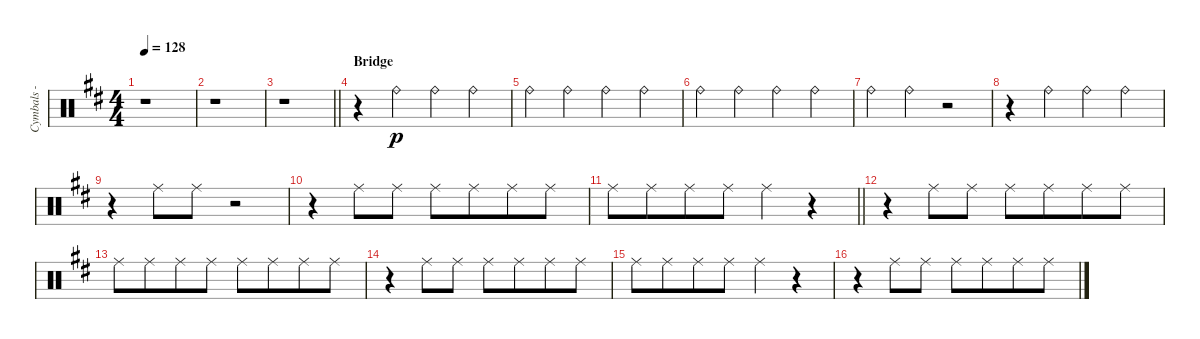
\track ("Cymbals - ride" "Cymbals - ") {instrument percussion}
\staff {score}
\articulation defaults
\ts (4 4)
\tempo 128
\clef neutral
\ks bminor
r.1{dy p} |
r.1 |
\barLineRight lightlight
r.1 |
\section ("" "Bridge")
r.4 "Ride (bell)".4 "Ride (bell)".4 "Ride (bell)".4 |
"Ride (bell)".4 "Ride (bell)".4 "Ride (bell)".4 "Ride (bell)".4 |
"Ride (bell)".4 "Ride (bell)".4 "Ride (bell)".4 "Ride (bell)".4 |
"Ride (bell)".4 "Ride (bell)".4 r.2 |
r.4 "Ride (bell)".4 "Ride (bell)".4 "Ride (bell)".4 |
r.4 "Ride (middle)".8 "Ride (middle)".8 r.2 |
r.4 "Ride (middle)".8 "Ride (middle)".8 "Ride (middle)".8 "Ride (middle)".8{beam merge} "Ride (middle)".8 "Ride (middle)".8 |
\barLineRight lightlight "Ride (middle)".8 "Ride (middle)".8{beam merge} "Ride (middle)".8 "Ride (middle)".8 "Ride (middle)".4
r.4 |
r.4 "Ride (middle)".8 "Ride (middle)".8 "Ride (middle)".8 "Ride (middle)".8{beam merge} "Ride (middle)".8 "Ride (middle)".8 |
"Ride (middle)".8 "Ride (middle)".8{beam merge} "Ride (middle)".8 "Ride (middle)".8 "Ride (middle)".8 "Ride (middle)".8{beam merge} "Ride (middle)".8 "Ride (middle)".8 |
r.4 "Ride (middle)".8 "Ride (middle)".8 "Ride (middle)".8 "Ride (middle)".8{beam merge} "Ride (middle)".8 "Ride (middle)".8 |
"Ride (middle)".8 "Ride (middle)".8{beam merge} "Ride (middle)".8 "Ride (middle)".8 "Ride (middle)".4 r.4 |
r.4 "Ride (middle)".8 "Ride (middle)".8 "Ride (middle)".8 "Ride (middle)".8{beam merge} "Ride (middle)".8 "Ride (middle)".8
